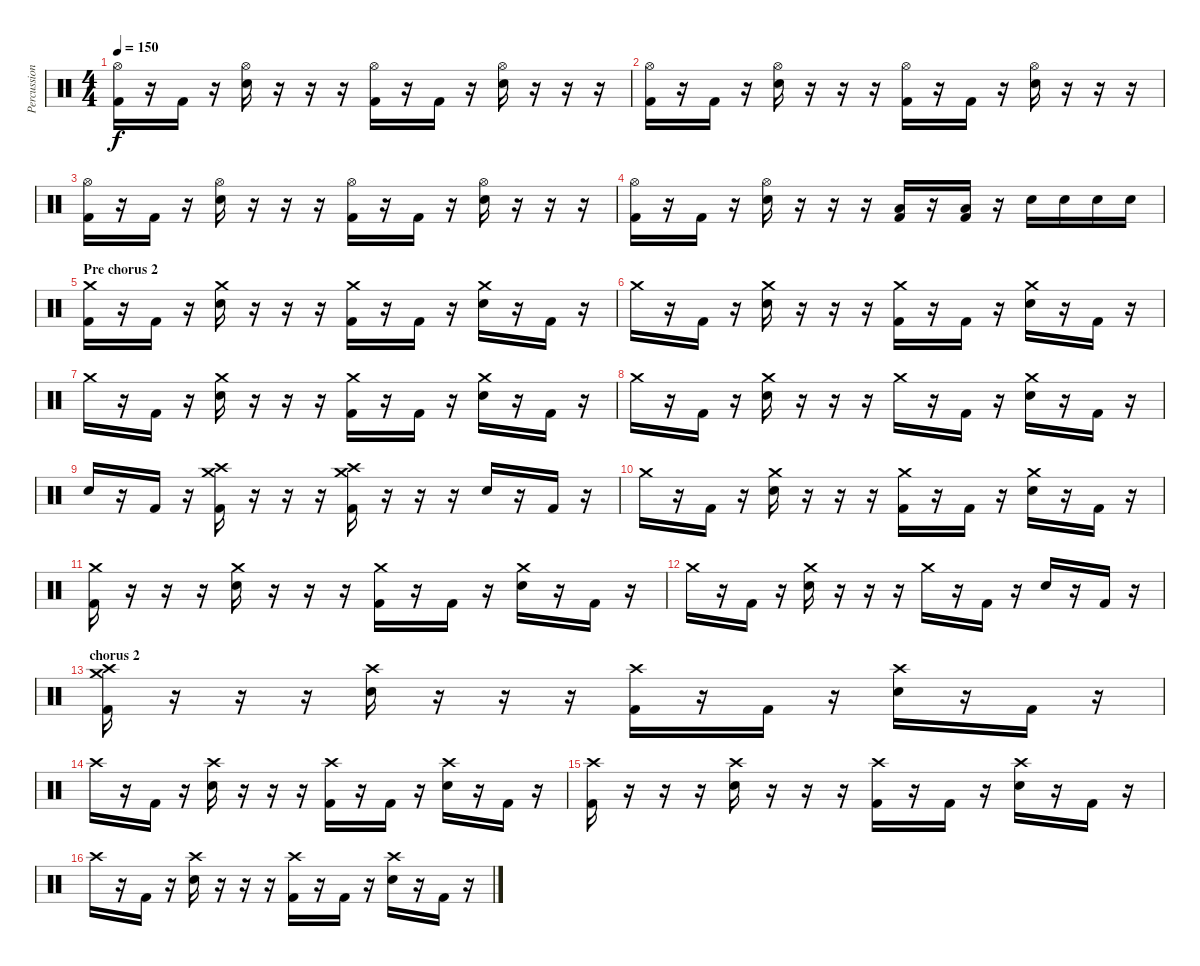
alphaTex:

\track ("Percussion" "Percussion") {instrument percussion}
\staff {score}
\articulation defaults
\ts (4 4)
\tempo 150
\clef neutral
\ks c
("Hi-Hat (open)" "Kick (hit) 2").16{dy f} r.16 "Kick (hit) 2".16 r.16 ("Hi-Hat (open)" "Electric Snare (hit)").16 r.16 r.16 r.16 ("Hi-Hat (open)" "Kick (hit) 2").16 r.16 "Kick (hit) 2".16 r.16 ("Hi-Hat (open)" "Electric Snare (hit)").16 r.16 r.16 r.16 |
("Hi-Hat (open)" "Kick (hit) 2").16 r.16 "Kick (hit) 2".16 r.16 ("Hi-Hat (open)" "Electric Snare (hit)").16 r.16 r.16 r.16 ("Hi-Hat (open)" "Kick (hit) 2").16 r.16 "Kick (hit) 2".16 r.16 ("Hi-Hat (open)" "Electric Snare (hit)").16 r.16 r.16 r.16 |
("Hi-Hat (open)" "Kick (hit) 2").16 r.16 "Kick (hit) 2".16 r.16 ("Hi-Hat (open)" "Electric Snare (hit)").16 r.16 r.16 r.16 ("Hi-Hat (open)" "Kick (hit) 2").16 r.16 "Kick (hit) 2".16 r.16 ("Hi-Hat (open)" "Electric Snare (hit)").16 r.16 r.16 r.16 |
("Hi-Hat (open)" "Kick (hit) 2").16 r.16 "Kick (hit) 2".16 r.16 ("Hi-Hat (open)" "Electric Snare (hit)").16 r.16 r.16 r.16 ("Low Floor Tom (hit)" "Kick (hit) 2").16 r.16 ("Low Floor Tom (hit)" "Kick (hit) 2").16 r.16 "Electric Snare (hit)".16 "Electric Snare (hit)".16 "Electric Snare (hit)".16 "Electric Snare (hit)".16 |
\section ("" "Pre chorus 2")
("Crash medium (hit)" "Kick (hit) 2").16 r.16 "Kick (hit) 2".16 r.16 ("Crash medium (hit)" "Electric Snare (hit)").16 r.16 r.16 r.16 ("Crash medium (hit)" "Kick (hit) 2").16 r.16 "Kick (hit) 2".16 r.16 ("Crash medium (hit)" "Electric Snare (hit)").16 r.16 "Kick (hit) 2".16 r.16 |
"Crash medium (hit)".16 r.16 "Kick (hit) 2".16 r.16 ("Crash medium (hit)" "Electric Snare (hit)").16 r.16 r.16 r.16 ("Crash medium (hit)" "Kick (hit) 2").16 r.16 "Kick (hit) 2".16 r.16 ("Crash medium (hit)" "Electric Snare (hit)").16 r.16 "Kick (hit) 2".16 r.16 |
"Crash medium (hit)".16 r.16 "Kick (hit) 2".16 r.16 ("Crash medium (hit)" "Electric Snare (hit)").16 r.16 r.16 r.16 ("Crash medium (hit)" "Kick (hit) 2").16 r.16 "Kick (hit) 2".16 r.16 ("Crash medium (hit)" "Electric Snare (hit)").16 r.16 "Kick (hit) 2".16 r.16 |
"Crash medium (hit)".16 r.16 "Kick (hit) 2".16 r.16 ("Crash medium (hit)" "Electric Snare (hit)").16 r.16 r.16 r.16 "Crash medium (hit)".16 r.16 "Kick (hit) 2".16 r.16 ("Crash medium (hit)" "Electric Snare (hit)").16 r.16 "Kick (hit) 2".16 r.16 |
"Electric Snare (hit)".16 r.16 "Kick (hit) 2".16 r.16 ("Crash high (hit)" "Crash medium (hit)" "Kick (hit) 2").16 r.16 r.16 r.16 ("Crash high (hit)" "Crash medium (hit)" "Kick (hit) 2").16 r.16 r.16 r.16 "Electric Snare (hit)".16 r.16 "Kick (hit) 2".16 r.16 |
"Crash medium (hit)".16 r.16 "Kick (hit) 2".16 r.16 ("Crash medium (hit)" "Electric Snare (hit)").16 r.16 r.16 r.16 ("Crash medium (hit)" "Kick (hit) 2").16 r.16 "Kick (hit) 2".16 r.16 ("Crash medium (hit)" "Electric Snare (hit)").16 r.16 "Kick (hit) 2".16 r.16 |
("Crash medium (hit)" "Kick (hit) 2").16 r.16 r.16 r.16 ("Crash medium (hit)" "Electric Snare (hit)").16 r.16 r.16 r.16 ("Crash medium (hit)" "Kick (hit) 2").16 r.16 "Kick (hit) 2".16 r.16 ("Crash medium (hit)" "Electric Snare (hit)").16 r.16 "Kick (hit) 2".16 r.16 |
"Crash medium (hit)".16 r.16 "Kick (hit) 2".16 r.16 ("Crash medium (hit)" "Electric Snare (hit)").16 r.16 r.16 r.16 "Crash medium (hit)".16 r.16 "Kick (hit) 2".16 r.16 "Electric Snare (hit)".16 r.16 "Kick (hit) 2".16 r.16 |
\section ("" "chorus 2")
("Crash high (hit)" "Crash medium (hit)" "Kick (hit) 2").16 r.16 r.16 r.16 ("Crash high (hit)" "Electric Snare (hit)").16 r.16 r.16 r.16 ("Crash high (hit)" "Kick (hit) 2").16 r.16 "Kick (hit) 2".16 r.16 ("Crash high (hit)" "Electric Snare (hit)").16 r.16 "Kick (hit) 2".16 r.16 |
"Crash high (hit)".16 r.16 "Kick (hit) 2".16 r.16 ("Crash high (hit)" "Electric Snare (hit)").16 r.16 r.16 r.16 ("Crash high (hit)" "Kick (hit) 2").16 r.16 "Kick (hit) 2".16 r.16 ("Crash high (hit)" "Electric Snare (hit)").16 r.16 "Kick (hit) 2".16 r.16 |
("Crash high (hit)" "Kick (hit) 2").16 r.16 r.16 r.16 ("Crash high (hit)" "Electric Snare (hit)").16 r.16 r.16 r.16 ("Crash high (hit)" "Kick (hit) 2").16 r.16 "Kick (hit) 2".16 r.16 ("Crash high (hit)" "Electric Snare (hit)").16 r.16 "Kick (hit) 2".16 r.16 |
"Crash high (hit)".16 r.16 "Kick (hit) 2".16 r.16 ("Crash high (hit)" "Electric Snare (hit)").16 r.16 r.16 r.16 ("Crash high (hit)" "Kick (hit) 2").16 r.16 "Kick (hit) 2".16 r.16 ("Crash high (hit)" "Electric Snare (hit)").16 r.16 "Kick (hit) 2".16 r.16
